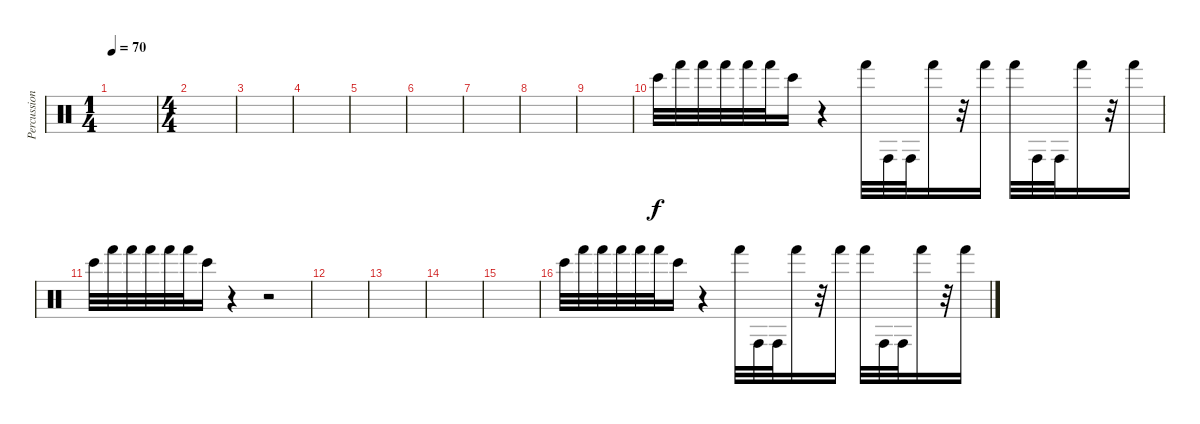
\track ("Percussions" "Percussion") {instrument percussion}
\staff {score}
\articulation defaults
\ts (1 4)
\tempo 70
\clef neutral
\ks c
|
\ts (4 4)
\section ("" "")
|
|
|
|
\section ("" "")
|
|
|
|
\section ("" "")
"Bongo High (hit)".32{balance 1} "Hand (hit)".32 "Hand (hit)".32 "Hand (hit)".32 "Hand (hit)".32 "Hand (hit)".32 "Bongo High (hit)".16 r.4 "Hand (hit)".32 "Conga high (hit)".32 "Conga high (hit)".32 "Hand (hit)".16 r.32 "Hand (hit)".16 "Hand (hit)".32 "Conga high (hit)".32 "Conga high (hit)".32 "Hand (hit)".16 r.32 "Hand (hit)".16 |
"Bongo High (hit)".32{balance 1} "Hand (hit)".32 "Hand (hit)".32 "Hand (hit)".32 "Hand (hit)".32 "Hand (hit)".32 "Bongo High (hit)".16 r.4 r.2 |
\section ("" "")
|
|
|
|
\section ("" "")
"Bongo High (hit)".32{balance 0} "Hand (hit)".32 "Hand (hit)".32 "Hand (hit)".32 "Hand (hit)".32 "Hand (hit)".32 "Bongo High (hit)".16 r.4 "Hand (hit)".32 "Conga high (hit)".32 "Conga high (hit)".32 "Hand (hit)".16 r.32 "Hand (hit)".16 "Hand (hit)".32 "Conga high (hit)".32 "Conga high (hit)".32 "Hand (hit)".16 r.32 "Hand (hit)".16
